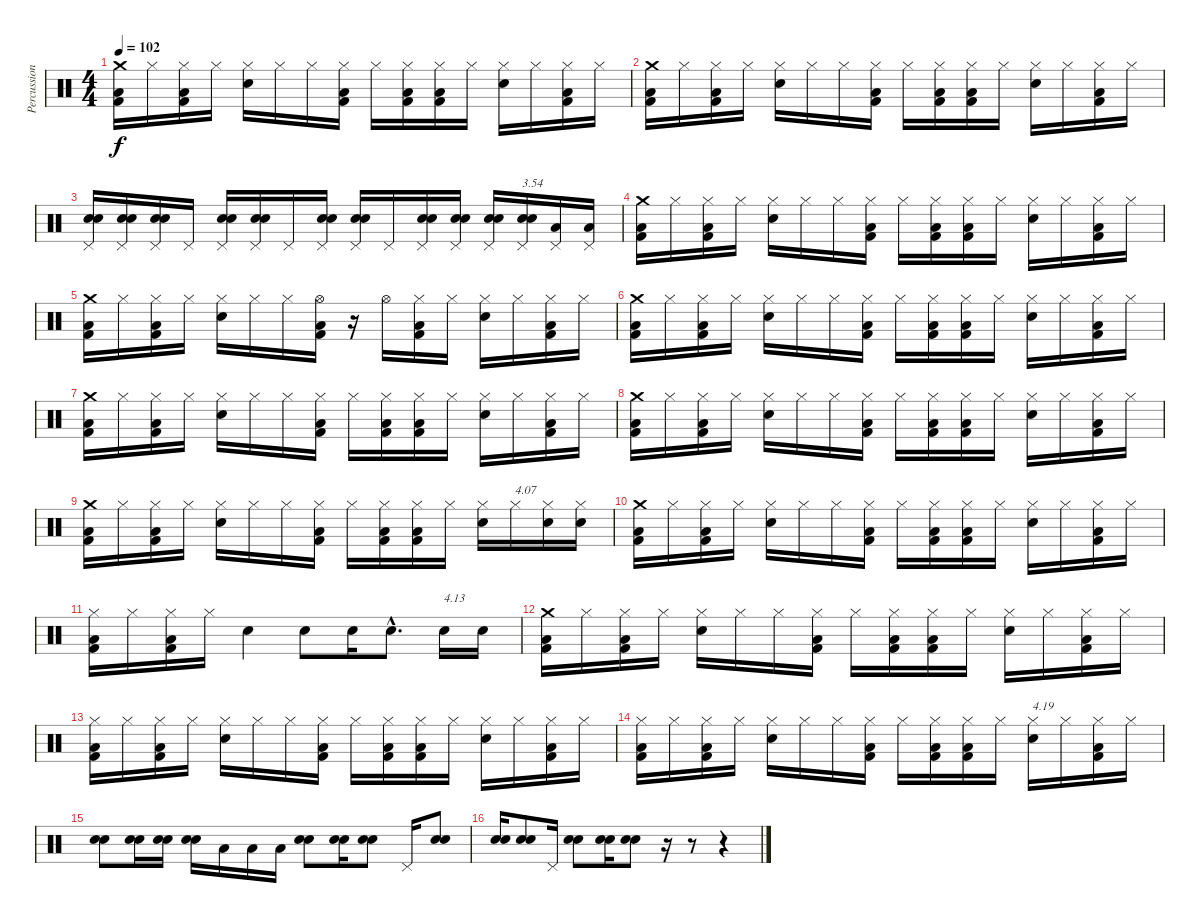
\track ("Percussions" "Percussion") {instrument percussion}
\staff {score}
\articulation defaults
\ts (4 4)
\tempo 102
\clef neutral
\ks c
("Kick (hit) 2" "Low Floor Tom (hit)" "Crash medium (hit)").16{dy f} "Hi-Hat (closed)".16 ("Kick (hit) 2" "Low Floor Tom (hit)" "Hi-Hat (closed)").16 "Hi-Hat (closed)".16 ("Snare (hit) 2" "Hi-Hat (closed)").16 "Hi-Hat (closed)".16 "Hi-Hat (closed)".16 ("Kick (hit) 2" "Low Floor Tom (hit)" "Hi-Hat (closed)").16 "Hi-Hat (closed)".16 ("Kick (hit) 2" "Low Floor Tom (hit)" "Hi-Hat (closed)").16 ("Kick (hit) 2" "Low Floor Tom (hit)" "Hi-Hat (closed)").16 "Hi-Hat (closed)".16 ("Snare (hit) 2" "Hi-Hat (closed)").16 "Hi-Hat (closed)".16 ("Kick (hit) 2" "Low Floor Tom (hit)" "Hi-Hat (closed)").16 "Hi-Hat (closed)".16 |
("Kick (hit) 2" "Low Floor Tom (hit)" "Crash medium (hit)").16 "Hi-Hat (closed)".16 ("Kick (hit) 2" "Low Floor Tom (hit)" "Hi-Hat (closed)").16 "Hi-Hat (closed)".16 ("Snare (hit) 2" "Hi-Hat (closed)").16 "Hi-Hat (closed)".16 "Hi-Hat (closed)".16 ("Kick (hit) 2" "Low Floor Tom (hit)" "Hi-Hat (closed)").16 "Hi-Hat (closed)".16 ("Kick (hit) 2" "Low Floor Tom (hit)" "Hi-Hat (closed)").16 ("Kick (hit) 2" "Low Floor Tom (hit)" "Hi-Hat (closed)").16 "Hi-Hat (closed)".16 ("Snare (hit) 2" "Hi-Hat (closed)").16 "Hi-Hat (closed)".16 ("Kick (hit) 2" "Low Floor Tom (hit)" "Hi-Hat (closed)").16 "Hi-Hat (closed)".16 |
("Electric Snare (hit)" "Hand Clap (hit)" "Pedal Hi-Hat (hit)").16 ("Electric Snare (hit)" "Hand Clap (hit)" "Pedal Hi-Hat (hit)").16 ("Electric Snare (hit)" "Hand Clap (hit)" "Pedal Hi-Hat (hit)").16 "Pedal Hi-Hat (hit)".16 ("Electric Snare (hit)" "Hand Clap (hit)" "Pedal Hi-Hat (hit)").16 ("Electric Snare (hit)" "Hand Clap (hit)" "Pedal Hi-Hat (hit)").16 "Pedal Hi-Hat (hit)".16 ("Electric Snare (hit)" "Hand Clap (hit)" "Pedal Hi-Hat (hit)").16 ("Electric Snare (hit)" "Hand Clap (hit)" "Pedal Hi-Hat (hit)").16 "Pedal Hi-Hat (hit)".16 ("Electric Snare (hit)" "Hand Clap (hit)" "Pedal Hi-Hat (hit)").16 ("Electric Snare (hit)" "Hand Clap (hit)" "Pedal Hi-Hat (hit)").16 ("Electric Snare (hit)" "Hand Clap (hit)" "Pedal Hi-Hat (hit)").16 ("Electric Snare (hit)" "Hand Clap (hit)" "Pedal Hi-Hat (hit)").16{txt "3.54"} ("Low Tom (hit)" "Pedal Hi-Hat (hit)").16 ("Low Tom (hit)" "Pedal Hi-Hat (hit)").16 |
("Kick (hit) 2" "Low Floor Tom (hit)" "Crash medium (hit)").16 "Hi-Hat (closed)".16 ("Kick (hit) 2" "Low Floor Tom (hit)" "Hi-Hat (closed)").16 "Hi-Hat (closed)".16 ("Snare (hit) 2" "Hi-Hat (closed)").16 "Hi-Hat (closed)".16 "Hi-Hat (closed)".16 ("Kick (hit) 2" "Low Floor Tom (hit)" "Hi-Hat (closed)").16 "Hi-Hat (closed)".16 ("Kick (hit) 2" "Low Floor Tom (hit)" "Hi-Hat (closed)").16 ("Kick (hit) 2" "Low Floor Tom (hit)" "Hi-Hat (closed)").16 "Hi-Hat (closed)".16 ("Snare (hit) 2" "Hi-Hat (closed)").16 "Hi-Hat (closed)".16 ("Kick (hit) 2" "Low Floor Tom (hit)" "Hi-Hat (closed)").16 "Hi-Hat (closed)".16 |
("Kick (hit) 2" "Low Floor Tom (hit)" "Crash medium (hit)").16 "Hi-Hat (closed)".16 ("Kick (hit) 2" "Low Floor Tom (hit)" "Hi-Hat (closed)").16 "Hi-Hat (closed)".16 ("Snare (hit) 2" "Hi-Hat (closed)").16 "Hi-Hat (closed)".16 "Hi-Hat (closed)".16 ("Kick (hit) 2" "Low Floor Tom (hit)" "Hi-Hat (open)").16 r.16 "Hi-Hat (open)".16 ("Kick (hit) 2" "Low Floor Tom (hit)" "Hi-Hat (closed)").16 "Hi-Hat (closed)".16 ("Snare (hit) 2" "Hi-Hat (closed)").16 "Hi-Hat (closed)".16 ("Kick (hit) 2" "Low Floor Tom (hit)" "Hi-Hat (closed)").16 "Hi-Hat (closed)".16 |
("Kick (hit) 2" "Low Floor Tom (hit)" "Crash medium (hit)").16 "Hi-Hat (closed)".16 ("Kick (hit) 2" "Low Floor Tom (hit)" "Hi-Hat (closed)").16 "Hi-Hat (closed)".16 ("Snare (hit) 2" "Hi-Hat (closed)").16 "Hi-Hat (closed)".16 "Hi-Hat (closed)".16 ("Kick (hit) 2" "Low Floor Tom (hit)" "Hi-Hat (closed)").16 "Hi-Hat (closed)".16 ("Kick (hit) 2" "Low Floor Tom (hit)" "Hi-Hat (closed)").16 ("Kick (hit) 2" "Low Floor Tom (hit)" "Hi-Hat (closed)").16 "Hi-Hat (closed)".16 ("Snare (hit) 2" "Hi-Hat (closed)").16 "Hi-Hat (closed)".16 ("Kick (hit) 2" "Low Floor Tom (hit)" "Hi-Hat (closed)").16 "Hi-Hat (closed)".16 |
("Kick (hit) 2" "Low Floor Tom (hit)" "Crash medium (hit)").16 "Hi-Hat (closed)".16 ("Kick (hit) 2" "Low Floor Tom (hit)" "Hi-Hat (closed)").16 "Hi-Hat (closed)".16 ("Snare (hit) 2" "Hi-Hat (closed)").16 "Hi-Hat (closed)".16 "Hi-Hat (closed)".16 ("Kick (hit) 2" "Low Floor Tom (hit)" "Hi-Hat (closed)").16 "Hi-Hat (closed)".16 ("Kick (hit) 2" "Low Floor Tom (hit)" "Hi-Hat (closed)").16 ("Kick (hit) 2" "Low Floor Tom (hit)" "Hi-Hat (closed)").16 "Hi-Hat (closed)".16 ("Snare (hit) 2" "Hi-Hat (closed)").16 "Hi-Hat (closed)".16 ("Kick (hit) 2" "Low Floor Tom (hit)" "Hi-Hat (closed)").16 "Hi-Hat (closed)".16 |
("Kick (hit) 2" "Low Floor Tom (hit)" "Crash medium (hit)").16 "Hi-Hat (closed)".16 ("Kick (hit) 2" "Low Floor Tom (hit)" "Hi-Hat (closed)").16 "Hi-Hat (closed)".16 ("Snare (hit) 2" "Hi-Hat (closed)").16 "Hi-Hat (closed)".16 "Hi-Hat (closed)".16 ("Kick (hit) 2" "Low Floor Tom (hit)" "Hi-Hat (closed)").16 "Hi-Hat (closed)".16 ("Kick (hit) 2" "Low Floor Tom (hit)" "Hi-Hat (closed)").16 ("Kick (hit) 2" "Low Floor Tom (hit)" "Hi-Hat (closed)").16 "Hi-Hat (closed)".16 ("Snare (hit) 2" "Hi-Hat (closed)").16 "Hi-Hat (closed)".16 ("Kick (hit) 2" "Low Floor Tom (hit)" "Hi-Hat (closed)").16 "Hi-Hat (closed)".16 |
("Kick (hit) 2" "Low Floor Tom (hit)" "Crash medium (hit)").16 "Hi-Hat (closed)".16 ("Kick (hit) 2" "Low Floor Tom (hit)" "Hi-Hat (closed)").16 "Hi-Hat (closed)".16 ("Snare (hit) 2" "Hi-Hat (closed)").16 "Hi-Hat (closed)".16 "Hi-Hat (closed)".16 ("Kick (hit) 2" "Low Floor Tom (hit)" "Hi-Hat (closed)").16 "Hi-Hat (closed)".16 ("Kick (hit) 2" "Low Floor Tom (hit)" "Hi-Hat (closed)").16 ("Kick (hit) 2" "Low Floor Tom (hit)" "Hi-Hat (closed)").16 "Hi-Hat (closed)".16 ("Snare (hit) 2" "Hi-Hat (closed)").16 "Hi-Hat (closed)".16{txt "4.07"} ("Snare (hit) 2" "Hi-Hat (closed)").16 ("Snare (hit) 2" "Hi-Hat (closed)").16 |
("Kick (hit) 2" "Low Floor Tom (hit)" "Crash medium (hit)").16 "Hi-Hat (closed)".16 ("Kick (hit) 2" "Low Floor Tom (hit)" "Hi-Hat (closed)").16 "Hi-Hat (closed)".16 ("Snare (hit) 2" "Hi-Hat (closed)").16 "Hi-Hat (closed)".16 "Hi-Hat (closed)".16 ("Kick (hit) 2" "Low Floor Tom (hit)" "Hi-Hat (closed)").16 "Hi-Hat (closed)".16 ("Kick (hit) 2" "Low Floor Tom (hit)" "Hi-Hat (closed)").16 ("Kick (hit) 2" "Low Floor Tom (hit)" "Hi-Hat (closed)").16 "Hi-Hat (closed)".16 ("Snare (hit) 2" "Hi-Hat (closed)").16 "Hi-Hat (closed)".16 ("Kick (hit) 2" "Low Floor Tom (hit)" "Hi-Hat (closed)").16 "Hi-Hat (closed)".16 |
("Kick (hit) 2" "Low Floor Tom (hit)" "Hi-Hat (closed)").16 "Hi-Hat (closed)".16 ("Kick (hit) 2" "Low Floor Tom (hit)" "Hi-Hat (closed)").16 "Hi-Hat (closed)".16 "Snare (hit) 2".4 "Snare (hit) 2".8 "Snare (hit) 2".16 "Snare (hit) 2"{hac}.8{d} "Snare (hit) 2".16{txt "4.13"} "Snare (hit) 2".16 |
("Kick (hit) 2" "Low Floor Tom (hit)" "Crash medium (hit)").16 "Hi-Hat (closed)".16 ("Kick (hit) 2" "Low Floor Tom (hit)" "Hi-Hat (closed)").16 "Hi-Hat (closed)".16 ("Snare (hit) 2" "Hi-Hat (closed)").16 "Hi-Hat (closed)".16 "Hi-Hat (closed)".16 ("Kick (hit) 2" "Low Floor Tom (hit)" "Hi-Hat (closed)").16 "Hi-Hat (closed)".16 ("Kick (hit) 2" "Low Floor Tom (hit)" "Hi-Hat (closed)").16 ("Kick (hit) 2" "Low Floor Tom (hit)" "Hi-Hat (closed)").16 "Hi-Hat (closed)".16 ("Snare (hit) 2" "Hi-Hat (closed)").16 "Hi-Hat (closed)".16 ("Kick (hit) 2" "Low Floor Tom (hit)" "Hi-Hat (closed)").16 "Hi-Hat (closed)".16 |
("Kick (hit) 2" "Low Floor Tom (hit)" "Hi-Hat (closed)").16 "Hi-Hat (closed)".16 ("Kick (hit) 2" "Low Floor Tom (hit)" "Hi-Hat (closed)").16 "Hi-Hat (closed)".16 ("Snare (hit) 2" "Hi-Hat (closed)").16 "Hi-Hat (closed)".16 "Hi-Hat (closed)".16 ("Kick (hit) 2" "Low Floor Tom (hit)" "Hi-Hat (closed)").16 "Hi-Hat (closed)".16 ("Kick (hit) 2" "Low Floor Tom (hit)" "Hi-Hat (closed)").16 ("Kick (hit) 2" "Low Floor Tom (hit)" "Hi-Hat (closed)").16 "Hi-Hat (closed)".16 ("Snare (hit) 2" "Hi-Hat (closed)").16 "Hi-Hat (closed)".16 ("Kick (hit) 2" "Low Floor Tom (hit)" "Hi-Hat (closed)").16 "Hi-Hat (closed)".16 |
("Kick (hit) 2" "Low Floor Tom (hit)" "Hi-Hat (closed)").16 "Hi-Hat (closed)".16 ("Kick (hit) 2" "Low Floor Tom (hit)" "Hi-Hat (closed)").16 "Hi-Hat (closed)".16 ("Snare (hit) 2" "Hi-Hat (closed)").16 "Hi-Hat (closed)".16 "Hi-Hat (closed)".16 ("Kick (hit) 2" "Low Floor Tom (hit)" "Hi-Hat (closed)").16 "Hi-Hat (closed)".16 ("Kick (hit) 2" "Low Floor Tom (hit)" "Hi-Hat (closed)").16 ("Kick (hit) 2" "Low Floor Tom (hit)" "Hi-Hat (closed)").16 "Hi-Hat (closed)".16 ("Snare (hit) 2" "Hi-Hat (closed)").16{txt "4.19"} "Hi-Hat (closed)".16 ("Kick (hit) 2" "Low Floor Tom (hit)" "Hi-Hat (closed)").16 "Hi-Hat (closed)".16 |
("Electric Snare (hit)" "Hand Clap (hit)").8 ("Electric Snare (hit)" "Hand Clap (hit)").16 ("Electric Snare (hit)" "Hand Clap (hit)").16 ("Electric Snare (hit)" "Hand Clap (hit)").16 "Low Tom (hit)".16 "Low Tom (hit)".16 "Low Tom (hit)".16 ("Electric Snare (hit)" "Hand Clap (hit)").8 ("Electric Snare (hit)" "Hand Clap (hit)").16 ("Electric Snare (hit)" "Hand Clap (hit)").8 "Pedal Hi-Hat (hit)".16 ("Electric Snare (hit)" "Hand Clap (hit)").8 |
("Electric Snare (hit)" "Hand Clap (hit)").16 ("Electric Snare (hit)" "Hand Clap (hit)").8 "Pedal Hi-Hat (hit)".16 ("Electric Snare (hit)" "Hand Clap (hit)").8 ("Electric Snare (hit)" "Hand Clap (hit)").16 ("Electric Snare (hit)" "Hand Clap (hit)").8 r.16 r.8 r.4
